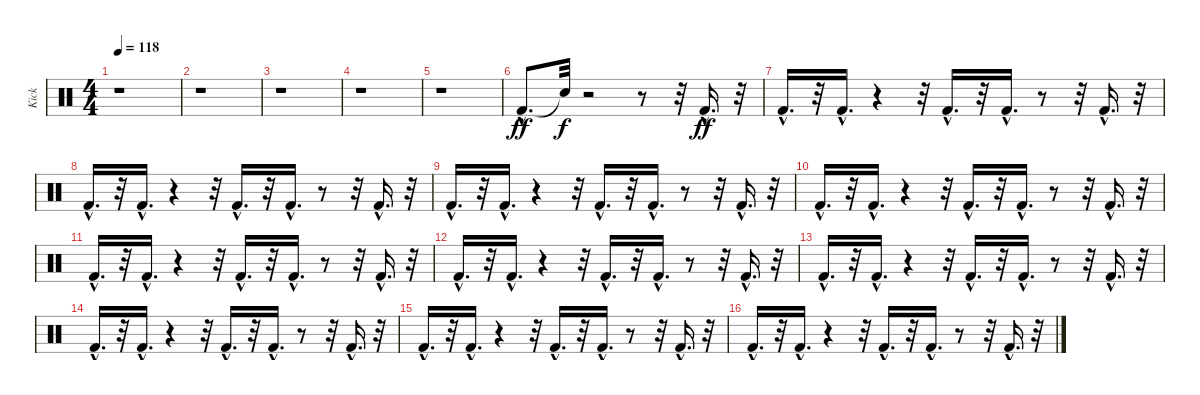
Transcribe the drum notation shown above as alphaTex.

\track ("Kick                " "Kick      ") {instrument percussion}
\staff {score}
\articulation defaults
\ts (4 4)
\tempo 118
\clef neutral
\ks c
r.1{dy f} |
r.1 |
r.1 |
r.1 |
r.1 |
"Kick (hit) 2"{hac}.8{d dy ff} "Snare (hit)"{t}.32{dy f} r.2 r.8 r.32 "Kick (hit) 2"{hac}.16{d dy ff} r.32 |
"Kick (hit) 2"{hac}.16{d} r.32 "Kick (hit) 2"{hac}.16{d} r.4 r.32 "Kick (hit) 2"{hac}.16{d} r.32 "Kick (hit) 2"{hac}.16{d} r.8 r.32 "Kick (hit) 2"{hac}.16{d} r.32 |
"Kick (hit) 2"{hac}.16{d} r.32 "Kick (hit) 2"{hac}.16{d} r.4 r.32 "Kick (hit) 2"{hac}.16{d} r.32 "Kick (hit) 2"{hac}.16{d} r.8 r.32 "Kick (hit) 2"{hac}.16{d} r.32 |
"Kick (hit) 2"{hac}.16{d} r.32 "Kick (hit) 2"{hac}.16{d} r.4 r.32 "Kick (hit) 2"{hac}.16{d} r.32 "Kick (hit) 2"{hac}.16{d} r.8 r.32 "Kick (hit) 2"{hac}.16{d} r.32 |
"Kick (hit) 2"{hac}.16{d} r.32 "Kick (hit) 2"{hac}.16{d} r.4 r.32 "Kick (hit) 2"{hac}.16{d} r.32 "Kick (hit) 2"{hac}.16{d} r.8 r.32 "Kick (hit) 2"{hac}.16{d} r.32 |
"Kick (hit) 2"{hac}.16{d} r.32 "Kick (hit) 2"{hac}.16{d} r.4 r.32 "Kick (hit) 2"{hac}.16{d} r.32 "Kick (hit) 2"{hac}.16{d} r.8 r.32 "Kick (hit) 2"{hac}.16{d} r.32 |
"Kick (hit) 2"{hac}.16{d} r.32 "Kick (hit) 2"{hac}.16{d} r.4 r.32 "Kick (hit) 2"{hac}.16{d} r.32 "Kick (hit) 2"{hac}.16{d} r.8 r.32 "Kick (hit) 2"{hac}.16{d} r.32 |
"Kick (hit) 2"{hac}.16{d} r.32 "Kick (hit) 2"{hac}.16{d} r.4 r.32 "Kick (hit) 2"{hac}.16{d} r.32 "Kick (hit) 2"{hac}.16{d} r.8 r.32 "Kick (hit) 2"{hac}.16{d} r.32 |
"Kick (hit) 2"{hac}.16{d} r.32 "Kick (hit) 2"{hac}.16{d} r.4 r.32 "Kick (hit) 2"{hac}.16{d} r.32 "Kick (hit) 2"{hac}.16{d} r.8 r.32 "Kick (hit) 2"{hac}.16{d} r.32 |
"Kick (hit) 2"{hac}.16{d} r.32 "Kick (hit) 2"{hac}.16{d} r.4 r.32 "Kick (hit) 2"{hac}.16{d} r.32 "Kick (hit) 2"{hac}.16{d} r.8 r.32 "Kick (hit) 2"{hac}.16{d} r.32 |
"Kick (hit) 2"{hac}.16{d} r.32 "Kick (hit) 2"{hac}.16{d} r.4 r.32 "Kick (hit) 2"{hac}.16{d} r.32 "Kick (hit) 2"{hac}.16{d} r.8 r.32 "Kick (hit) 2"{hac}.16{d} r.32
